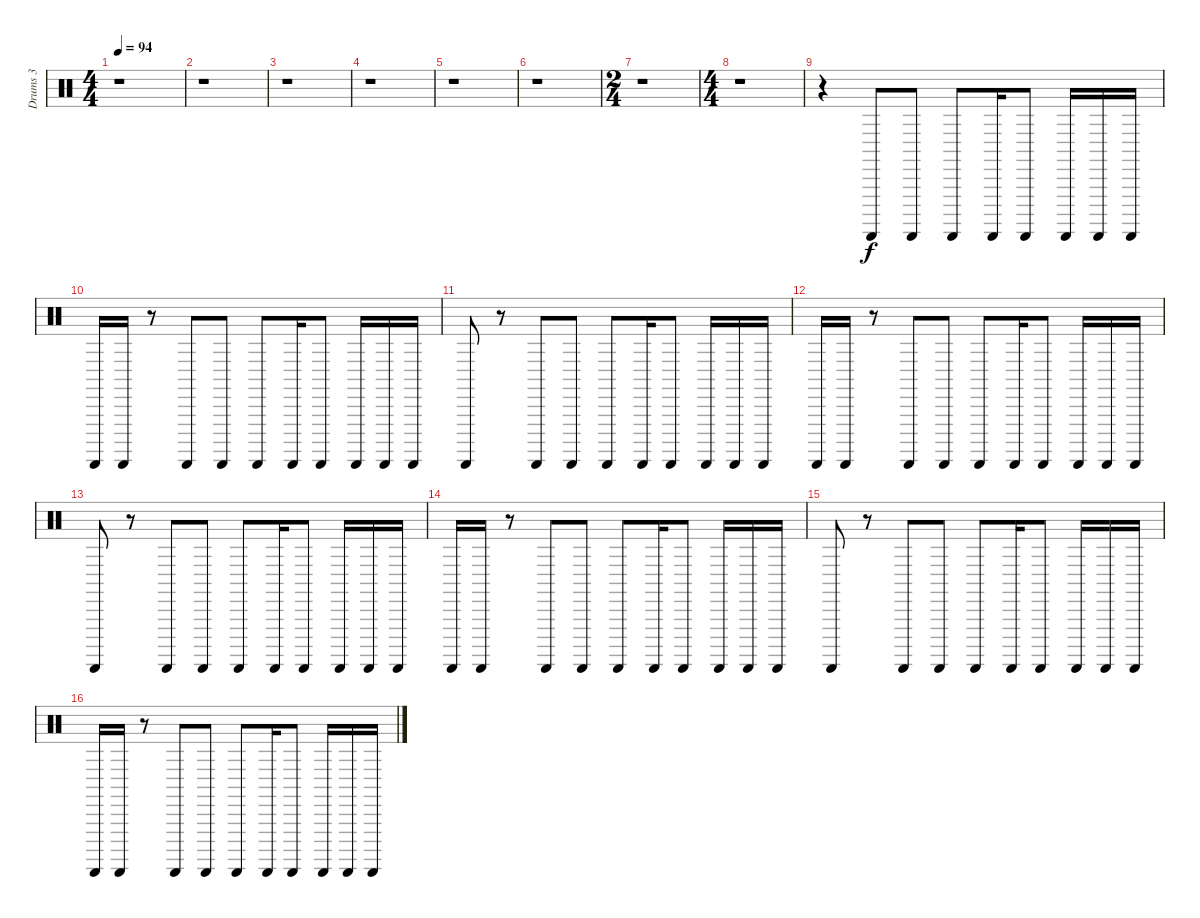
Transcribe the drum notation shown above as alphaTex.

\track ("Drums 3" "Drums 3") {instrument percussion}
\staff {score}
\articulation defaults
\ts (4 4)
\tempo 94
\clef neutral
\ks c
r.1{dy f} |
r.1 |
r.1 |
r.1 |
r.1 |
r.1 |
\ts (2 4)
r.1 |
\ts (4 4)
r.1 |
r.4 "Guiro (scrap-return)".8 "Guiro (scrap-return)".8 "Guiro (scrap-return)".8 "Guiro (scrap-return)".16 "Guiro (scrap-return)".8 "Guiro (scrap-return)".16 "Guiro (scrap-return)".16 "Guiro (scrap-return)".16 |
"Guiro (scrap-return)".16 "Guiro (scrap-return)".16 r.8 "Guiro (scrap-return)".8 "Guiro (scrap-return)".8 "Guiro (scrap-return)".8 "Guiro (scrap-return)".16 "Guiro (scrap-return)".8 "Guiro (scrap-return)".16 "Guiro (scrap-return)".16 "Guiro (scrap-return)".16 |
"Guiro (scrap-return)".8 r.8 "Guiro (scrap-return)".8 "Guiro (scrap-return)".8 "Guiro (scrap-return)".8 "Guiro (scrap-return)".16 "Guiro (scrap-return)".8 "Guiro (scrap-return)".16 "Guiro (scrap-return)".16 "Guiro (scrap-return)".16 |
"Guiro (scrap-return)".16 "Guiro (scrap-return)".16 r.8 "Guiro (scrap-return)".8 "Guiro (scrap-return)".8 "Guiro (scrap-return)".8 "Guiro (scrap-return)".16 "Guiro (scrap-return)".8 "Guiro (scrap-return)".16 "Guiro (scrap-return)".16 "Guiro (scrap-return)".16 |
"Guiro (scrap-return)".8 r.8 "Guiro (scrap-return)".8 "Guiro (scrap-return)".8 "Guiro (scrap-return)".8 "Guiro (scrap-return)".16 "Guiro (scrap-return)".8 "Guiro (scrap-return)".16 "Guiro (scrap-return)".16 "Guiro (scrap-return)".16 |
"Guiro (scrap-return)".16 "Guiro (scrap-return)".16 r.8 "Guiro (scrap-return)".8 "Guiro (scrap-return)".8 "Guiro (scrap-return)".8 "Guiro (scrap-return)".16 "Guiro (scrap-return)".8 "Guiro (scrap-return)".16 "Guiro (scrap-return)".16 "Guiro (scrap-return)".16 |
"Guiro (scrap-return)".8 r.8 "Guiro (scrap-return)".8 "Guiro (scrap-return)".8 "Guiro (scrap-return)".8 "Guiro (scrap-return)".16 "Guiro (scrap-return)".8 "Guiro (scrap-return)".16 "Guiro (scrap-return)".16 "Guiro (scrap-return)".16 |
"Guiro (scrap-return)".16 "Guiro (scrap-return)".16 r.8 "Guiro (scrap-return)".8 "Guiro (scrap-return)".8 "Guiro (scrap-return)".8 "Guiro (scrap-return)".16 "Guiro (scrap-return)".8 "Guiro (scrap-return)".16 "Guiro (scrap-return)".16 "Guiro (scrap-return)".16
